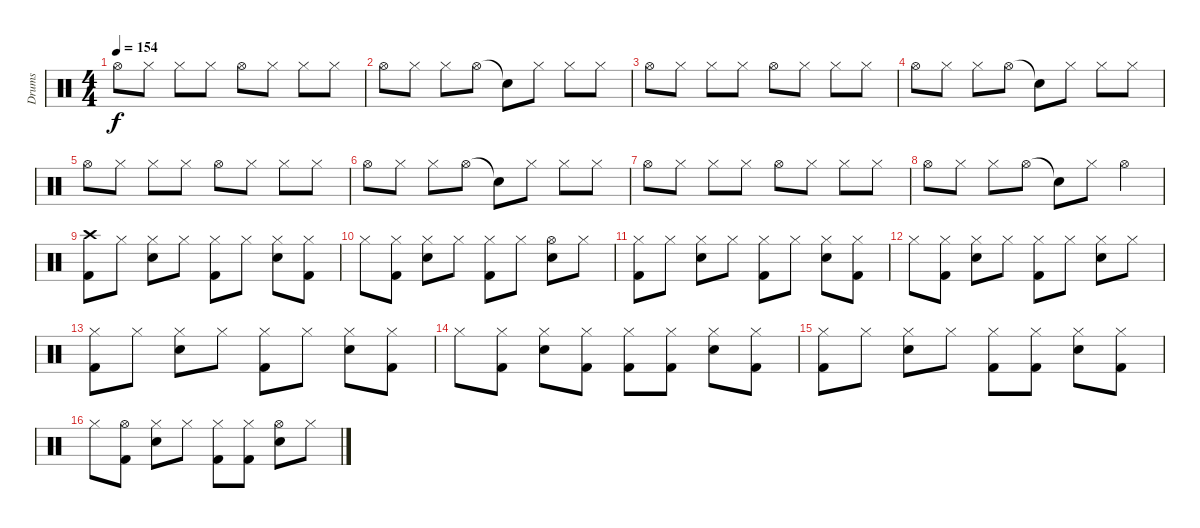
\track ("Drums" "Drums") {instrument percussion}
\staff {score}
\articulation defaults
\ts (4 4)
\tempo 154
\clef neutral
\ks c "Hi-Hat (open)".8{dy f} "Hi-Hat (closed)".8 "Hi-Hat (closed)".8 "Hi-Hat (closed)".8 "Hi-Hat (open)".8 "Hi-Hat (closed)".8 "Hi-Hat (closed)".8 "Hi-Hat (closed)".8
|
"Hi-Hat (open)".8 "Hi-Hat (closed)".8 "Hi-Hat (closed)".8 "Hi-Hat (open)".8 "Snare (hit)"{t}.8 "Hi-Hat (closed)".8 "Hi-Hat (closed)".8 "Hi-Hat (closed)".8 |
"Hi-Hat (open)".8 "Hi-Hat (closed)".8 "Hi-Hat (closed)".8 "Hi-Hat (closed)".8 "Hi-Hat (open)".8 "Hi-Hat (closed)".8 "Hi-Hat (closed)".8 "Hi-Hat (closed)".8 |
"Hi-Hat (open)".8 "Hi-Hat (closed)".8 "Hi-Hat (closed)".8 "Hi-Hat (open)".8 "Snare (hit)"{t}.8 "Hi-Hat (closed)".8 "Hi-Hat (closed)".8 "Hi-Hat (closed)".8 |
"Hi-Hat (open)".8 "Hi-Hat (closed)".8 "Hi-Hat (closed)".8 "Hi-Hat (closed)".8 "Hi-Hat (open)".8 "Hi-Hat (closed)".8 "Hi-Hat (closed)".8 "Hi-Hat (closed)".8 |
"Hi-Hat (open)".8 "Hi-Hat (closed)".8 "Hi-Hat (closed)".8 "Hi-Hat (open)".8 "Snare (hit)"{t}.8 "Hi-Hat (closed)".8 "Hi-Hat (closed)".8 "Hi-Hat (closed)".8 |
"Hi-Hat (open)".8 "Hi-Hat (closed)".8 "Hi-Hat (closed)".8 "Hi-Hat (closed)".8 "Hi-Hat (open)".8 "Hi-Hat (closed)".8 "Hi-Hat (closed)".8 "Hi-Hat (closed)".8 |
"Hi-Hat (open)".8 "Hi-Hat (closed)".8 "Hi-Hat (closed)".8 "Hi-Hat (open)".8 "Snare (hit)"{t}.8 "Hi-Hat (closed)".8 "Hi-Hat (open)".4 |
("Crash high (hit)" "Kick (hit) 2").8 "Hi-Hat (closed)".8 ("Hi-Hat (closed)" "Snare (hit) 2").8 "Hi-Hat (closed)".8 ("Hi-Hat (closed)" "Kick (hit) 2").8 "Hi-Hat (closed)".8 ("Hi-Hat (closed)" "Snare (hit) 2").8 ("Hi-Hat (closed)" "Kick (hit) 2").8 |
"Hi-Hat (closed)".8 ("Hi-Hat (closed)" "Kick (hit) 2").8 ("Hi-Hat (closed)" "Snare (hit) 2").8 "Hi-Hat (closed)".8 ("Hi-Hat (closed)" "Kick (hit) 2").8 "Hi-Hat (closed)".8 ("Hi-Hat (open)" "Snare (hit) 2").8 "Hi-Hat (closed)".8 |
("Hi-Hat (closed)" "Kick (hit) 2").8 "Hi-Hat (closed)".8 ("Hi-Hat (closed)" "Snare (hit) 2").8 "Hi-Hat (closed)".8 ("Hi-Hat (closed)" "Kick (hit) 2").8 "Hi-Hat (closed)".8 ("Hi-Hat (closed)" "Snare (hit) 2").8 ("Hi-Hat (closed)" "Kick (hit) 2").8 |
"Hi-Hat (closed)".8 ("Hi-Hat (closed)" "Kick (hit) 2").8 ("Hi-Hat (closed)" "Snare (hit) 2").8 "Hi-Hat (closed)".8 ("Hi-Hat (closed)" "Kick (hit) 2").8 "Hi-Hat (closed)".8 ("Hi-Hat (closed)" "Snare (hit) 2").8 "Hi-Hat (closed)".8 |
("Hi-Hat (closed)" "Kick (hit) 2").8 "Hi-Hat (closed)".8 ("Hi-Hat (closed)" "Snare (hit) 2").8 "Hi-Hat (closed)".8 ("Hi-Hat (closed)" "Kick (hit) 2").8 "Hi-Hat (closed)".8 ("Hi-Hat (closed)" "Snare (hit) 2").8 ("Hi-Hat (closed)" "Kick (hit) 2").8 |
"Hi-Hat (closed)".8 ("Hi-Hat (closed)" "Kick (hit) 2").8 ("Hi-Hat (closed)" "Snare (hit) 2").8 ("Hi-Hat (closed)" "Kick (hit) 2").8 ("Hi-Hat (closed)" "Kick (hit) 2").8 ("Hi-Hat (closed)" "Kick (hit) 2").8 ("Hi-Hat (closed)" "Snare (hit) 2").8 ("Hi-Hat (closed)" "Kick (hit) 2").8 |
("Hi-Hat (closed)" "Kick (hit) 2").8 "Hi-Hat (closed)".8 ("Hi-Hat (closed)" "Snare (hit) 2").8 "Hi-Hat (closed)".8 ("Hi-Hat (closed)" "Kick (hit) 2").8 ("Hi-Hat (closed)" "Kick (hit) 2").8 ("Hi-Hat (closed)" "Snare (hit) 2").8 ("Hi-Hat (closed)" "Kick (hit) 2").8 |
"Hi-Hat (closed)".8 ("Hi-Hat (open)" "Kick (hit) 2").8 ("Hi-Hat (closed)" "Snare (hit) 2").8 "Hi-Hat (closed)".8 ("Hi-Hat (closed)" "Kick (hit) 2").8 ("Hi-Hat (closed)" "Kick (hit) 2").8 ("Hi-Hat (open)" "Snare (hit) 2").8 "Hi-Hat (closed)".8
